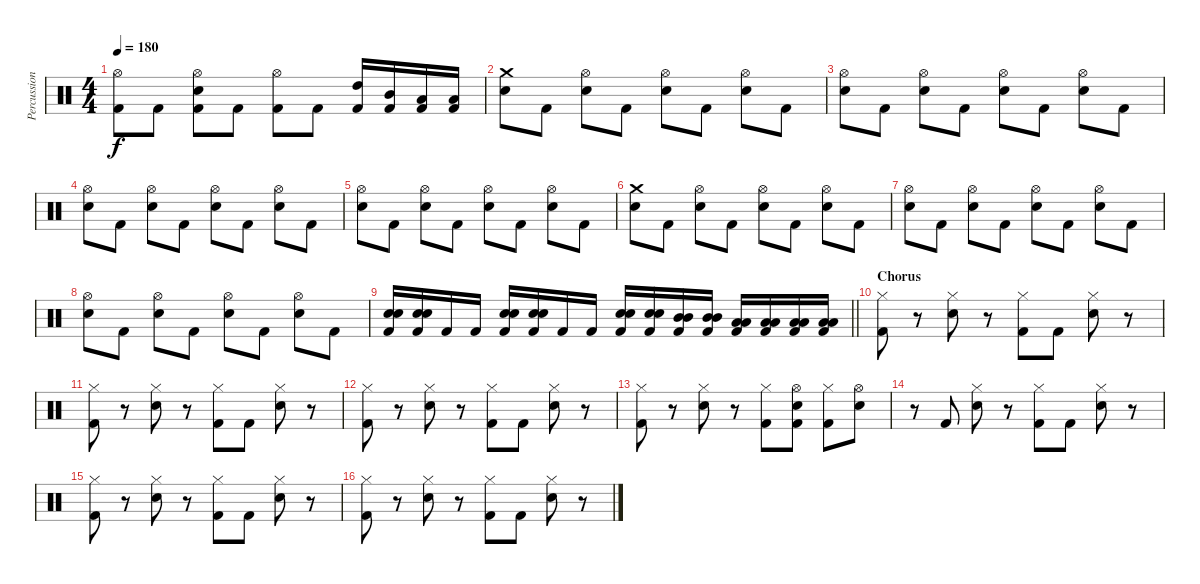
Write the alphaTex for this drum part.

\track ("Percussion" "Percussion") {instrument percussion}
\staff {score}
\articulation defaults
\ts (4 4)
\tempo 180
\clef neutral
\ks c
("Hi-Hat (open)" "Kick (hit) 2").8{dy f} "Kick (hit) 2".8 ("Hi-Hat (open)" "Electric Snare (hit)" "Kick (hit) 2").8 "Kick (hit) 2".8 ("Hi-Hat (open)" "Kick (hit) 2").8 "Kick (hit) 2".8 ("High Tom (hit)" "Kick (hit) 2").16 ("Mid Tom (hit)" "Kick (hit) 2").16 ("Low Tom (hit)" "Kick (hit) 2").16 ("Low Floor Tom (hit)" "Kick (hit) 2").16 |
("Crash medium (hit)" "Electric Snare (hit)").8 "Kick (hit) 2".8 ("Hi-Hat (open)" "Electric Snare (hit)").8 "Kick (hit) 2".8 ("Hi-Hat (open)" "Electric Snare (hit)").8 "Kick (hit) 2".8 ("Hi-Hat (open)" "Electric Snare (hit)").8 "Kick (hit) 2".8 |
("Hi-Hat (open)" "Electric Snare (hit)").8 "Kick (hit) 2".8 ("Hi-Hat (open)" "Electric Snare (hit)").8 "Kick (hit) 2".8 ("Hi-Hat (open)" "Electric Snare (hit)").8 "Kick (hit) 2".8 ("Hi-Hat (open)" "Electric Snare (hit)").8 "Kick (hit) 2".8 |
("Hi-Hat (open)" "Electric Snare (hit)").8 "Kick (hit) 2".8 ("Hi-Hat (open)" "Electric Snare (hit)").8 "Kick (hit) 2".8 ("Hi-Hat (open)" "Electric Snare (hit)").8 "Kick (hit) 2".8 ("Hi-Hat (open)" "Electric Snare (hit)").8 "Kick (hit) 2".8 |
("Hi-Hat (open)" "Electric Snare (hit)").8 "Kick (hit) 2".8 ("Hi-Hat (open)" "Electric Snare (hit)").8 "Kick (hit) 2".8 ("Hi-Hat (open)" "Electric Snare (hit)").8 "Kick (hit) 2".8 ("Hi-Hat (open)" "Electric Snare (hit)").8 "Kick (hit) 2".8 |
("Crash medium (hit)" "Electric Snare (hit)").8 "Kick (hit) 2".8 ("Hi-Hat (open)" "Electric Snare (hit)").8 "Kick (hit) 2".8 ("Hi-Hat (open)" "Electric Snare (hit)").8 "Kick (hit) 2".8 ("Hi-Hat (open)" "Electric Snare (hit)").8 "Kick (hit) 2".8 |
("Hi-Hat (open)" "Electric Snare (hit)").8 "Kick (hit) 2".8 ("Hi-Hat (open)" "Electric Snare (hit)").8 "Kick (hit) 2".8 ("Hi-Hat (open)" "Electric Snare (hit)").8 "Kick (hit) 2".8 ("Hi-Hat (open)" "Electric Snare (hit)").8 "Kick (hit) 2".8 |
("Hi-Hat (open)" "Electric Snare (hit)").8 "Kick (hit) 2".8 ("Hi-Hat (open)" "Electric Snare (hit)").8 "Kick (hit) 2".8 ("Hi-Hat (open)" "Electric Snare (hit)").8 "Kick (hit) 2".8 ("Hi-Hat (open)" "Electric Snare (hit)").8 "Kick (hit) 2".8 |
\barLineRight lightlight
("Electric Snare (hit)" "Electric Snare (hit)" "Kick (hit) 2").16 ("Electric Snare (hit)" "Electric Snare (hit)" "Kick (hit) 2").16 "Kick (hit) 2".16 "Kick (hit) 2".16 ("Electric Snare (hit)" "Electric Snare (hit)" "Kick (hit) 2").16 ("Electric Snare (hit)" "Electric Snare (hit)" "Kick (hit) 2").16 "Kick (hit) 2".16 "Kick (hit) 2".16 ("Electric Snare (hit)" "Electric Snare (hit)" "Kick (hit) 2").16 ("Electric Snare (hit)" "Electric Snare (hit)" "Kick (hit) 2").16 ("Mid Tom (hit)" "Mid Tom (hit)" "Kick (hit) 2").16 ("Mid Tom (hit)" "Mid Tom (hit)" "Kick (hit) 2").16 ("Low Tom (hit)" "Low Tom (hit)" "Kick (hit) 2").16 ("Low Tom (hit)" "Low Tom (hit)" "Kick (hit) 2").16 ("Low Floor Tom (hit)" "Low Floor Tom (hit)" "Kick (hit) 2").16 ("Low Floor Tom (hit)" "Low Floor Tom (hit)" "Kick (hit) 2").16 |
\section ("" "Chorus")
("Hi-Hat (closed)" "Kick (hit) 2").8 r.8 ("Hi-Hat (closed)" "Electric Snare (hit)").8 r.8 ("Hi-Hat (closed)" "Kick (hit) 2").8 "Kick (hit) 2".8 ("Hi-Hat (closed)" "Electric Snare (hit)").8 r.8 |
("Hi-Hat (closed)" "Kick (hit) 2").8 r.8 ("Hi-Hat (closed)" "Electric Snare (hit)").8 r.8 ("Hi-Hat (closed)" "Kick (hit) 2").8 "Kick (hit) 2".8 ("Hi-Hat (closed)" "Electric Snare (hit)").8 r.8 |
("Hi-Hat (closed)" "Kick (hit) 2").8 r.8 ("Hi-Hat (closed)" "Electric Snare (hit)").8 r.8 ("Hi-Hat (closed)" "Kick (hit) 2").8 "Kick (hit) 2".8 ("Hi-Hat (closed)" "Electric Snare (hit)").8 r.8 |
("Hi-Hat (closed)" "Kick (hit) 2").8 r.8 ("Hi-Hat (closed)" "Electric Snare (hit)").8 r.8 ("Hi-Hat (closed)" "Kick (hit) 2").8 ("Hi-Hat (open)" "Electric Snare (hit)" "Kick (hit) 2").8 ("Hi-Hat (closed)" "Kick (hit) 2").8 ("Hi-Hat (open)" "Electric Snare (hit)").8 |
r.8 "Kick (hit) 2".8 ("Hi-Hat (closed)" "Electric Snare (hit)").8 r.8 ("Hi-Hat (closed)" "Kick (hit) 2").8 "Kick (hit) 2".8 ("Hi-Hat (closed)" "Electric Snare (hit)").8 r.8 |
("Hi-Hat (closed)" "Kick (hit) 2").8 r.8 ("Hi-Hat (closed)" "Electric Snare (hit)").8 r.8 ("Hi-Hat (closed)" "Kick (hit) 2").8 "Kick (hit) 2".8 ("Hi-Hat (closed)" "Electric Snare (hit)").8 r.8 |
("Hi-Hat (closed)" "Kick (hit) 2").8 r.8 ("Hi-Hat (closed)" "Electric Snare (hit)").8 r.8 ("Hi-Hat (closed)" "Kick (hit) 2").8 "Kick (hit) 2".8 ("Hi-Hat (closed)" "Electric Snare (hit)").8 r.8
